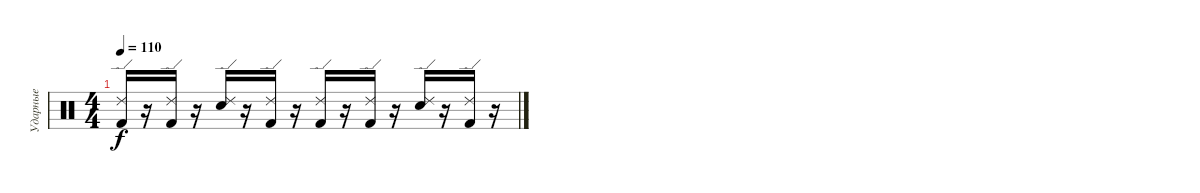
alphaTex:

\track ("Ударные" "Ударные") {instrument percussion}
\staff {score}
\articulation defaults
\ts (4 4)
\tempo 110
\clef neutral
\ks c
("Ride (edge) 2" "Kick (hit) 2").16{dy f} r.16 ("Ride (edge) 2" "Kick (hit) 2").16 r.16 ("Ride (edge) 2" "Electric Snare (hit)").16 r.16 ("Ride (edge) 2" "Kick (hit) 2").16 r.16 ("Ride (edge) 2" "Kick (hit) 2").16 r.16 ("Ride (edge) 2" "Kick (hit) 2").16 r.16 ("Ride (edge) 2" "Electric Snare (hit)").16 r.16 ("Ride (edge) 2" "Kick (hit) 2").16 r.16
